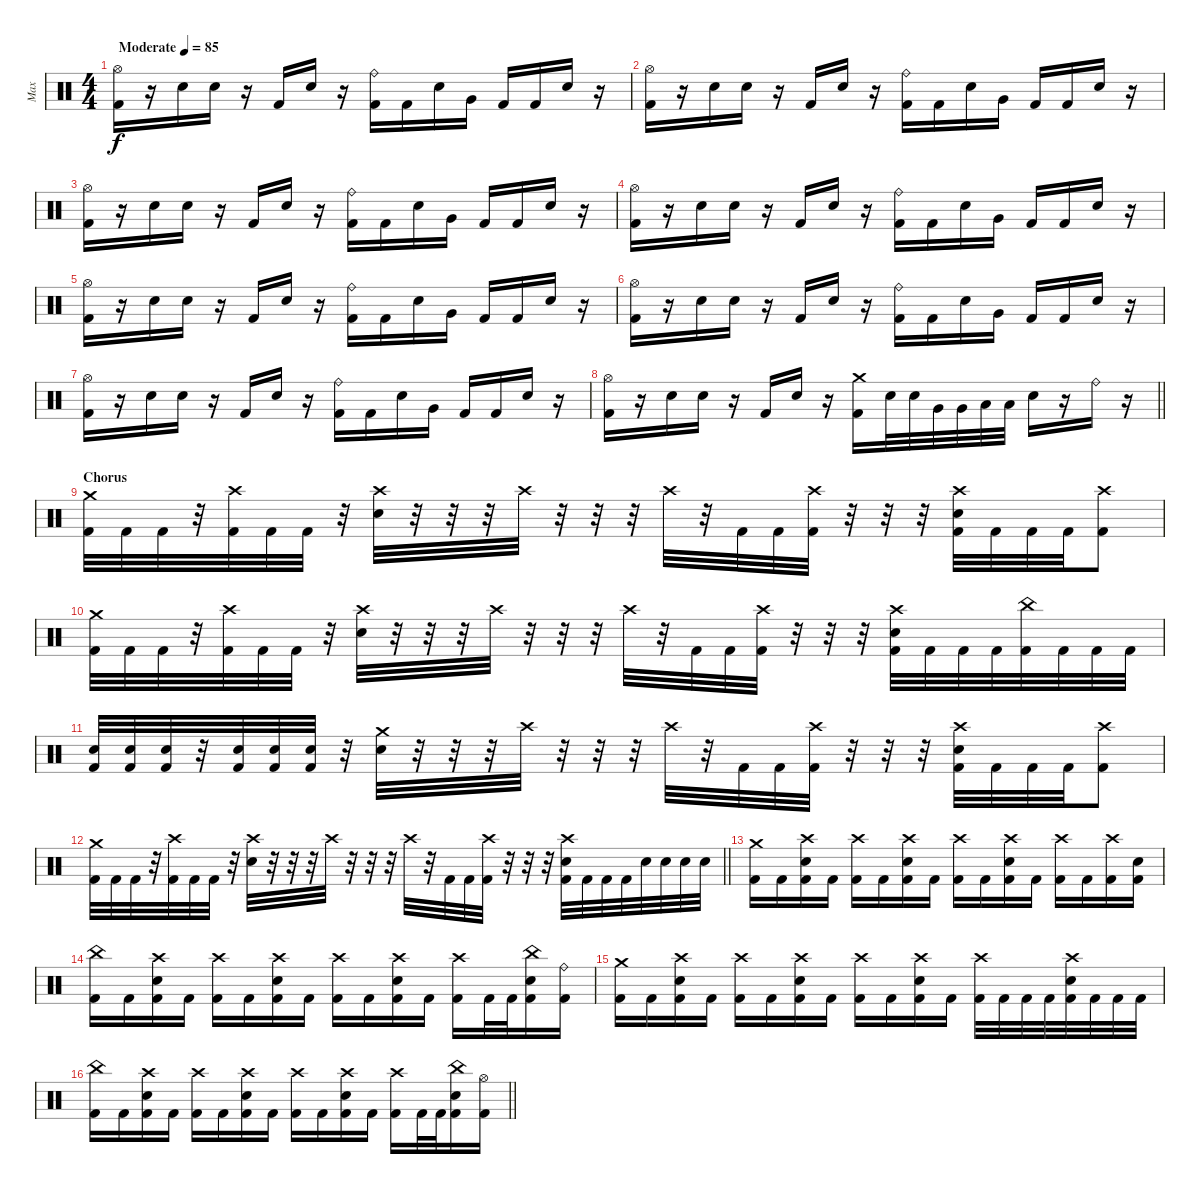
\track ("Max" "Max") {instrument percussion}
\staff {score}
\articulation defaults
\ts (4 4)
\tempo (85 "Moderate")
\clef neutral
\ks c
("Hi-Hat (open)" "Kick (hit) 2").16{dy f} r.16 "Electric Snare (hit)".16 "Electric Snare (hit)".16 r.16 "Kick (hit) 2".16 "Electric Snare (hit)".16 r.16 ("Ride (bell)" "Kick (hit) 2").16 "Kick (hit) 2".16 "Electric Snare (hit)".16 "Very Low Tom (hit)".16 "Kick (hit) 2".16 "Kick (hit) 2".16 "Electric Snare (hit)".16 r.16 |
("Hi-Hat (open)" "Kick (hit) 2").16 r.16 "Electric Snare (hit)".16 "Electric Snare (hit)".16 r.16 "Kick (hit) 2".16 "Electric Snare (hit)".16 r.16 ("Ride (bell)" "Kick (hit) 2").16 "Kick (hit) 2".16 "Electric Snare (hit)".16 "Very Low Tom (hit)".16 "Kick (hit) 2".16 "Kick (hit) 2".16 "Electric Snare (hit)".16 r.16 |
("Hi-Hat (open)" "Kick (hit) 2").16 r.16 "Electric Snare (hit)".16 "Electric Snare (hit)".16 r.16 "Kick (hit) 2".16 "Electric Snare (hit)".16 r.16 ("Ride (bell)" "Kick (hit) 2").16 "Kick (hit) 2".16 "Electric Snare (hit)".16 "Very Low Tom (hit)".16 "Kick (hit) 2".16 "Kick (hit) 2".16 "Electric Snare (hit)".16 r.16 |
("Hi-Hat (open)" "Kick (hit) 2").16 r.16 "Electric Snare (hit)".16 "Electric Snare (hit)".16 r.16 "Kick (hit) 2".16 "Electric Snare (hit)".16 r.16 ("Ride (bell)" "Kick (hit) 2").16 "Kick (hit) 2".16 "Electric Snare (hit)".16 "Very Low Tom (hit)".16 "Kick (hit) 2".16 "Kick (hit) 2".16 "Electric Snare (hit)".16 r.16 |
("Hi-Hat (open)" "Kick (hit) 2").16 r.16 "Electric Snare (hit)".16 "Electric Snare (hit)".16 r.16 "Kick (hit) 2".16 "Electric Snare (hit)".16 r.16 ("Ride (bell)" "Kick (hit) 2").16 "Kick (hit) 2".16 "Electric Snare (hit)".16 "Very Low Tom (hit)".16 "Kick (hit) 2".16 "Kick (hit) 2".16 "Electric Snare (hit)".16 r.16 |
("Hi-Hat (open)" "Kick (hit) 2").16 r.16 "Electric Snare (hit)".16 "Electric Snare (hit)".16 r.16 "Kick (hit) 2".16 "Electric Snare (hit)".16 r.16 ("Ride (bell)" "Kick (hit) 2").16 "Kick (hit) 2".16 "Electric Snare (hit)".16 "Very Low Tom (hit)".16 "Kick (hit) 2".16 "Kick (hit) 2".16 "Electric Snare (hit)".16 r.16 |
("Hi-Hat (open)" "Kick (hit) 2").16 r.16 "Electric Snare (hit)".16 "Electric Snare (hit)".16 r.16 "Kick (hit) 2".16 "Electric Snare (hit)".16 r.16 ("Ride (bell)" "Kick (hit) 2").16 "Kick (hit) 2".16 "Electric Snare (hit)".16 "Very Low Tom (hit)".16 "Kick (hit) 2".16 "Kick (hit) 2".16 "Electric Snare (hit)".16 r.16 |
\barLineRight lightlight
("Hi-Hat (open)" "Kick (hit) 2").16 r.16 "Electric Snare (hit)".16 "Electric Snare (hit)".16 r.16 "Kick (hit) 2".16 "Electric Snare (hit)".16 r.16 ("Crash medium (hit)" "Kick (hit) 2").16 "Electric Snare (hit)".32 "Electric Snare (hit)".32 "Very Low Tom (hit)".32 "Very Low Tom (hit)".32 "Low Floor Tom (hit)".32 "Low Floor Tom (hit)".32 "Electric Snare (hit)".16 r.16 "Ride (bell)".16 r.16 |
\section ("" "Chorus")
("Crash medium (hit)" "Kick (hit) 2").32 "Kick (hit) 2".32 "Kick (hit) 2".32 r.32 ("Crash high (hit)" "Kick (hit) 2").32 "Kick (hit) 2".32 "Kick (hit) 2".32 r.32 ("Crash high (hit)" "Electric Snare (hit)").32 r.32 r.32 r.32 "Crash high (hit)".32 r.32 r.32 r.32 "Crash high (hit)".32 r.32 "Kick (hit) 2".32 "Kick (hit) 2".32 ("Crash high (hit)" "Kick (hit) 2").32 r.32 r.32 r.32 ("Crash high (hit)" "Electric Snare (hit)" "Kick (hit) 2").32 "Kick (hit) 2".32 "Kick (hit) 2".32 "Kick (hit) 2".32 ("Crash high (hit)" "Kick (hit) 2").8 |
("Crash medium (hit)" "Kick (hit) 2").32 "Kick (hit) 2".32 "Kick (hit) 2".32 r.32 ("Crash high (hit)" "Kick (hit) 2").32 "Kick (hit) 2".32 "Kick (hit) 2".32 r.32 ("Crash high (hit)" "Electric Snare (hit)").32 r.32 r.32 r.32 "Crash high (hit)".32 r.32 r.32 r.32 "Crash high (hit)".32 r.32 "Kick (hit) 2".32 "Kick (hit) 2".32 ("Crash high (hit)" "Kick (hit) 2").32 r.32 r.32 r.32 ("Crash high (hit)" "Electric Snare (hit)" "Kick (hit) 2").32 "Kick (hit) 2".32 "Kick (hit) 2".32 "Kick (hit) 2".32 ("China (hit)" "Kick (hit) 2").32 "Kick (hit) 2".32 "Kick (hit) 2".32 "Kick (hit) 2".32 |
("Electric Snare (hit)" "Kick (hit) 2").32 ("Electric Snare (hit)" "Kick (hit) 2").32 ("Electric Snare (hit)" "Kick (hit) 2").32 r.32 ("Electric Snare (hit)" "Kick (hit) 2").32 ("Electric Snare (hit)" "Kick (hit) 2").32 ("Electric Snare (hit)" "Kick (hit) 2").32 r.32 ("Crash medium (hit)" "Electric Snare (hit)").32 r.32 r.32 r.32 "Crash high (hit)".32 r.32 r.32 r.32 "Crash high (hit)".32 r.32 "Kick (hit) 2".32 "Kick (hit) 2".32 ("Crash high (hit)" "Kick (hit) 2").32 r.32 r.32 r.32 ("Crash high (hit)" "Electric Snare (hit)" "Kick (hit) 2").32 "Kick (hit) 2".32 "Kick (hit) 2".32 "Kick (hit) 2".32 ("Crash high (hit)" "Kick (hit) 2").8 |
\barLineRight lightlight
("Crash medium (hit)" "Kick (hit) 2").32 "Kick (hit) 2".32 "Kick (hit) 2".32 r.32 ("Crash high (hit)" "Kick (hit) 2").32 "Kick (hit) 2".32 "Kick (hit) 2".32 r.32 ("Crash high (hit)" "Electric Snare (hit)").32 r.32 r.32 r.32 "Crash high (hit)".32 r.32 r.32 r.32 "Crash high (hit)".32 r.32 "Kick (hit) 2".32 "Kick (hit) 2".32 ("Crash high (hit)" "Kick (hit) 2").32 r.32 r.32 r.32 ("Crash high (hit)" "Electric Snare (hit)" "Kick (hit) 2").32 "Kick (hit) 2".32 "Kick (hit) 2".32 "Kick (hit) 2".32 "Electric Snare (hit)".32 "Electric Snare (hit)".32 "Electric Snare (hit)".32 "Electric Snare (hit)".32 |
\section ("" "")
("Crash medium (hit)" "Kick (hit) 2").16 "Kick (hit) 2".16 ("Crash high (hit)" "Electric Snare (hit)" "Kick (hit) 2").16 "Kick (hit) 2".16 ("Crash high (hit)" "Kick (hit) 2").16 "Kick (hit) 2".16 ("Crash high (hit)" "Electric Snare (hit)" "Kick (hit) 2").16 "Kick (hit) 2".16 ("Crash high (hit)" "Kick (hit) 2").16 "Kick (hit) 2".16 ("Crash high (hit)" "Electric Snare (hit)" "Kick (hit) 2").16 "Kick (hit) 2".16 ("Crash high (hit)" "Kick (hit) 2").16 "Kick (hit) 2".16 ("Crash high (hit)" "Kick (hit) 2").16 ("Electric Snare (hit)" "Kick (hit) 2").16 |
("China (hit)" "Kick (hit) 2").16 "Kick (hit) 2".16 ("Crash high (hit)" "Electric Snare (hit)" "Kick (hit) 2").16 "Kick (hit) 2".16 ("Crash high (hit)" "Kick (hit) 2").16 "Kick (hit) 2".16 ("Crash high (hit)" "Electric Snare (hit)" "Kick (hit) 2").16 "Kick (hit) 2".16 ("Crash high (hit)" "Kick (hit) 2").16 "Kick (hit) 2".16 ("Crash high (hit)" "Electric Snare (hit)" "Kick (hit) 2").16 "Kick (hit) 2".16 ("Crash high (hit)" "Kick (hit) 2").16 "Kick (hit) 2".32 "Kick (hit) 2".32 ("China (hit)" "Electric Snare (hit)" "Kick (hit) 2").16 ("Ride (bell)" "Kick (hit) 2").16 |
("Crash medium (hit)" "Kick (hit) 2").16 "Kick (hit) 2".16 ("Crash high (hit)" "Electric Snare (hit)" "Kick (hit) 2").16 "Kick (hit) 2".16 ("Crash high (hit)" "Kick (hit) 2").16 "Kick (hit) 2".16 ("Crash high (hit)" "Electric Snare (hit)" "Kick (hit) 2").16 "Kick (hit) 2".16 ("Crash high (hit)" "Kick (hit) 2").16 "Kick (hit) 2".16 ("Crash high (hit)" "Electric Snare (hit)" "Kick (hit) 2").16 "Kick (hit) 2".16 ("Crash high (hit)" "Kick (hit) 2").32 "Kick (hit) 2".32 "Kick (hit) 2".32 "Kick (hit) 2".32 ("Crash high (hit)" "Electric Snare (hit)" "Kick (hit) 2").32 "Kick (hit) 2".32 "Kick (hit) 2".32 "Kick (hit) 2".32 |
\barLineRight lightlight
("China (hit)" "Kick (hit) 2").16 "Kick (hit) 2".16 ("Crash high (hit)" "Electric Snare (hit)" "Kick (hit) 2").16 "Kick (hit) 2".16 ("Crash high (hit)" "Kick (hit) 2").16 "Kick (hit) 2".16 ("Crash high (hit)" "Electric Snare (hit)" "Kick (hit) 2").16 "Kick (hit) 2".16 ("Crash high (hit)" "Kick (hit) 2").16 "Kick (hit) 2".16 ("Crash high (hit)" "Electric Snare (hit)" "Kick (hit) 2").16 "Kick (hit) 2".16 ("Crash high (hit)" "Kick (hit) 2").16 "Kick (hit) 2".32 "Kick (hit) 2".32 ("China (hit)" "Electric Snare (hit)" "Kick (hit) 2").16 ("Hi-Hat (open)" "Kick (hit) 2").16
